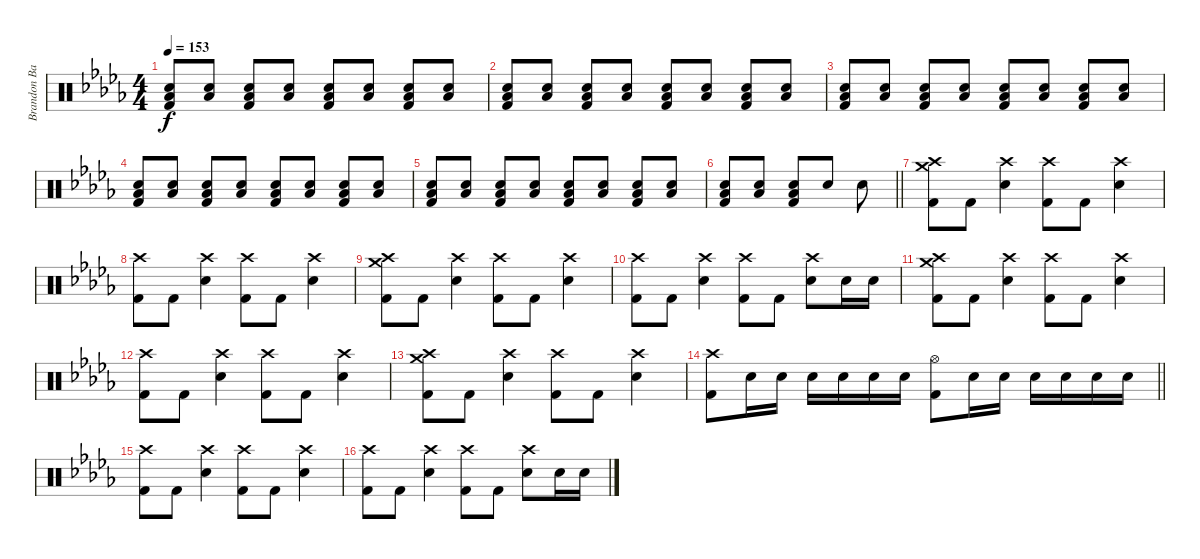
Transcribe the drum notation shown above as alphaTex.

\track ("Brandon Barnes" "Brandon Ba") {instrument percussion}
\staff {score}
\articulation defaults
\ts (4 4)
\tempo 153
\clef neutral
\ks db
("Low Floor Tom (hit)" "Snare (hit) 2" "Kick (hit) 2").8{dy f} ("Low Floor Tom (hit)" "Snare (hit) 2").8 ("Low Floor Tom (hit)" "Snare (hit) 2" "Kick (hit) 2").8 ("Low Floor Tom (hit)" "Snare (hit) 2").8 ("Low Floor Tom (hit)" "Snare (hit) 2" "Kick (hit) 2").8 ("Low Floor Tom (hit)" "Snare (hit) 2").8 ("Low Floor Tom (hit)" "Snare (hit) 2" "Kick (hit) 2").8 ("Low Floor Tom (hit)" "Snare (hit) 2").8 |
("Low Floor Tom (hit)" "Snare (hit) 2" "Kick (hit) 2").8 ("Low Floor Tom (hit)" "Snare (hit) 2").8 ("Low Floor Tom (hit)" "Snare (hit) 2" "Kick (hit) 2").8 ("Low Floor Tom (hit)" "Snare (hit) 2").8 ("Low Floor Tom (hit)" "Snare (hit) 2" "Kick (hit) 2").8 ("Low Floor Tom (hit)" "Snare (hit) 2").8 ("Low Floor Tom (hit)" "Snare (hit) 2" "Kick (hit) 2").8 ("Low Floor Tom (hit)" "Snare (hit) 2").8 |
("Low Floor Tom (hit)" "Snare (hit) 2" "Kick (hit) 2").8 ("Low Floor Tom (hit)" "Snare (hit) 2").8 ("Low Floor Tom (hit)" "Snare (hit) 2" "Kick (hit) 2").8 ("Low Floor Tom (hit)" "Snare (hit) 2").8 ("Low Floor Tom (hit)" "Snare (hit) 2" "Kick (hit) 2").8 ("Low Floor Tom (hit)" "Snare (hit) 2").8 ("Low Floor Tom (hit)" "Snare (hit) 2" "Kick (hit) 2").8 ("Low Floor Tom (hit)" "Snare (hit) 2").8 |
("Low Floor Tom (hit)" "Snare (hit) 2" "Kick (hit) 2").8 ("Low Floor Tom (hit)" "Snare (hit) 2").8 ("Low Floor Tom (hit)" "Snare (hit) 2" "Kick (hit) 2").8 ("Low Floor Tom (hit)" "Snare (hit) 2").8 ("Low Floor Tom (hit)" "Snare (hit) 2" "Kick (hit) 2").8 ("Low Floor Tom (hit)" "Snare (hit) 2").8 ("Low Floor Tom (hit)" "Snare (hit) 2" "Kick (hit) 2").8 ("Low Floor Tom (hit)" "Snare (hit) 2").8 |
("Low Floor Tom (hit)" "Snare (hit) 2" "Kick (hit) 2").8 ("Low Floor Tom (hit)" "Snare (hit) 2").8 ("Low Floor Tom (hit)" "Snare (hit) 2" "Kick (hit) 2").8 ("Low Floor Tom (hit)" "Snare (hit) 2").8 ("Low Floor Tom (hit)" "Snare (hit) 2" "Kick (hit) 2").8 ("Low Floor Tom (hit)" "Snare (hit) 2").8 ("Low Floor Tom (hit)" "Snare (hit) 2" "Kick (hit) 2").8 ("Low Floor Tom (hit)" "Snare (hit) 2").8 |
\barLineRight lightlight
("Low Floor Tom (hit)" "Snare (hit) 2" "Kick (hit) 2").8 ("Low Floor Tom (hit)" "Snare (hit) 2").8 ("Low Floor Tom (hit)" "Snare (hit) 2" "Kick (hit) 2").8 "Snare (hit) 2".8 "Snare (hit) 2".8 |
("Crash high (hit)" "Crash medium (hit)" "Kick (hit) 2").8 "Kick (hit) 2".8 ("Crash high (hit)" "Snare (hit) 2").4 ("Crash high (hit)" "Kick (hit) 2").8 "Kick (hit) 2".8 ("Crash high (hit)" "Snare (hit) 2").4 |
("Crash high (hit)" "Kick (hit) 2").8 "Kick (hit) 2".8 ("Crash high (hit)" "Snare (hit) 2").4 ("Crash high (hit)" "Kick (hit) 2").8 "Kick (hit) 2".8 ("Crash high (hit)" "Snare (hit) 2").4 |
("Crash high (hit)" "Crash medium (hit)" "Kick (hit) 2").8 "Kick (hit) 2".8 ("Crash high (hit)" "Snare (hit) 2").4 ("Crash high (hit)" "Kick (hit) 2").8 "Kick (hit) 2".8 ("Crash high (hit)" "Snare (hit) 2").4 |
("Crash high (hit)" "Kick (hit) 2").8 "Kick (hit) 2".8 ("Crash high (hit)" "Snare (hit) 2").4 ("Crash high (hit)" "Kick (hit) 2").8 "Kick (hit) 2".8 ("Crash high (hit)" "Snare (hit) 2").8 "Snare (hit) 2".16 "Snare (hit) 2".16 |
("Crash high (hit)" "Crash medium (hit)" "Kick (hit) 2").8 "Kick (hit) 2".8 ("Crash high (hit)" "Snare (hit) 2").4 ("Crash high (hit)" "Kick (hit) 2").8 "Kick (hit) 2".8 ("Crash high (hit)" "Snare (hit) 2").4 |
("Crash high (hit)" "Kick (hit) 2").8 "Kick (hit) 2".8 ("Crash high (hit)" "Snare (hit) 2").4 ("Crash high (hit)" "Kick (hit) 2").8 "Kick (hit) 2".8 ("Crash high (hit)" "Snare (hit) 2").4 |
("Crash high (hit)" "Crash medium (hit)" "Kick (hit) 2").8 "Kick (hit) 2".8 ("Crash high (hit)" "Snare (hit) 2").4 ("Crash high (hit)" "Kick (hit) 2").8 "Kick (hit) 2".8 ("Crash high (hit)" "Snare (hit) 2").4 |
\barLineRight lightlight
("Crash high (hit)" "Kick (hit) 2").8 "Snare (hit) 2".16 "Snare (hit) 2".16 "Snare (hit) 2".16 "Snare (hit) 2".16 "Snare (hit) 2".16 "Snare (hit) 2".16 ("Hi-Hat (open)" "Kick (hit) 2").8 "Snare (hit) 2".16 "Snare (hit) 2".16 "Snare (hit) 2".16 "Snare (hit) 2".16 "Snare (hit) 2".16 "Snare (hit) 2".16 |
("Crash high (hit)" "Kick (hit) 2").8 "Kick (hit) 2".8 ("Crash high (hit)" "Snare (hit) 2").4 ("Crash high (hit)" "Kick (hit) 2").8 "Kick (hit) 2".8 ("Crash high (hit)" "Snare (hit) 2").4 |
("Crash high (hit)" "Kick (hit) 2").8 "Kick (hit) 2".8 ("Crash high (hit)" "Snare (hit) 2").4 ("Crash high (hit)" "Kick (hit) 2").8 "Kick (hit) 2".8 ("Crash high (hit)" "Snare (hit) 2").8 "Snare (hit) 2".16 "Snare (hit) 2".16
